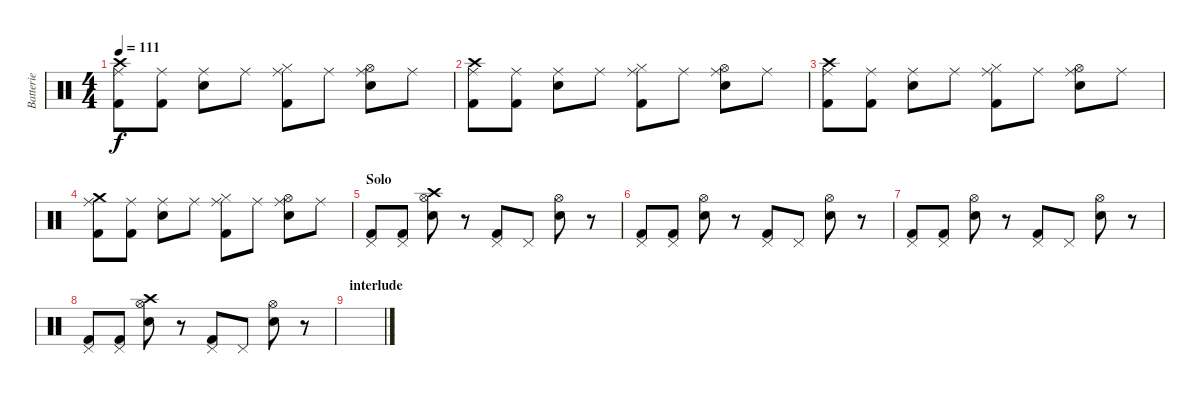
\track ("Batterie" "Batterie") {instrument percussion}
\staff {score}
\articulation defaults
\ts (4 4)
\tempo 111
\clef neutral
\ks c
("Ride (middle)" "Crash high (hit)" "Kick (hit) 2").8{dy f} ("Ride (middle)" "Kick (hit) 2").8 ("Ride (middle)" "Electric Snare (hit)").8 "Ride (middle)".8 ("Ride (middle)" "Hi-Hat (closed)" "Kick (hit) 2").8 "Ride (middle)".8 ("Ride (middle)" "Hi-Hat (open)" "Electric Snare (hit)").8 "Ride (middle)".8 |
("Ride (middle)" "Crash high (hit)" "Kick (hit) 2").8 ("Ride (middle)" "Kick (hit) 2").8 ("Ride (middle)" "Electric Snare (hit)").8 "Ride (middle)".8 ("Ride (middle)" "Hi-Hat (closed)" "Kick (hit) 2").8 "Ride (middle)".8 ("Ride (middle)" "Hi-Hat (open)" "Electric Snare (hit)").8 "Ride (middle)".8 |
("Ride (middle)" "Crash high (hit)" "Kick (hit) 2").8 ("Ride (middle)" "Kick (hit) 2").8 ("Ride (middle)" "Electric Snare (hit)").8 "Ride (middle)".8 ("Ride (middle)" "Hi-Hat (closed)" "Kick (hit) 2").8 "Ride (middle)".8 ("Ride (middle)" "Hi-Hat (open)" "Electric Snare (hit)").8 "Ride (middle)".8 |
("Ride (middle)" "Crash medium (hit)" "Kick (hit) 2").8 ("Ride (middle)" "Kick (hit) 2").8 ("Ride (middle)" "Electric Snare (hit)").8 "Ride (middle)".8 ("Ride (middle)" "Hi-Hat (closed)" "Kick (hit) 2").8 "Ride (middle)".8 ("Ride (middle)" "Hi-Hat (open)" "Electric Snare (hit)").8 "Ride (middle)".8 |
\section ("" "Solo")
("Pedal Hi-Hat (hit)" "Kick (hit) 2").8 ("Pedal Hi-Hat (hit)" "Kick (hit) 2").8 ("Hi-Hat (open)" "Crash high (hit)" "Electric Snare (hit)").8 r.8 ("Pedal Hi-Hat (hit)" "Kick (hit) 2").8 "Pedal Hi-Hat (hit)".8 ("Hi-Hat (open)" "Electric Snare (hit)").8 r.8 |
("Pedal Hi-Hat (hit)" "Kick (hit) 2").8 ("Pedal Hi-Hat (hit)" "Kick (hit) 2").8 ("Hi-Hat (open)" "Electric Snare (hit)").8 r.8 ("Pedal Hi-Hat (hit)" "Kick (hit) 2").8 "Pedal Hi-Hat (hit)".8 ("Hi-Hat (open)" "Electric Snare (hit)").8 r.8 |
("Pedal Hi-Hat (hit)" "Kick (hit) 2").8 ("Pedal Hi-Hat (hit)" "Kick (hit) 2").8 ("Hi-Hat (open)" "Electric Snare (hit)").8 r.8 ("Pedal Hi-Hat (hit)" "Kick (hit) 2").8 "Pedal Hi-Hat (hit)".8 ("Hi-Hat (open)" "Electric Snare (hit)").8 r.8 |
("Pedal Hi-Hat (hit)" "Kick (hit) 2").8 ("Pedal Hi-Hat (hit)" "Kick (hit) 2").8 ("Hi-Hat (open)" "Crash high (hit)" "Electric Snare (hit)").8 r.8 ("Pedal Hi-Hat (hit)" "Kick (hit) 2").8 "Pedal Hi-Hat (hit)".8 ("Hi-Hat (open)" "Electric Snare (hit)").8 r.8 |
\section ("" "interlude")
